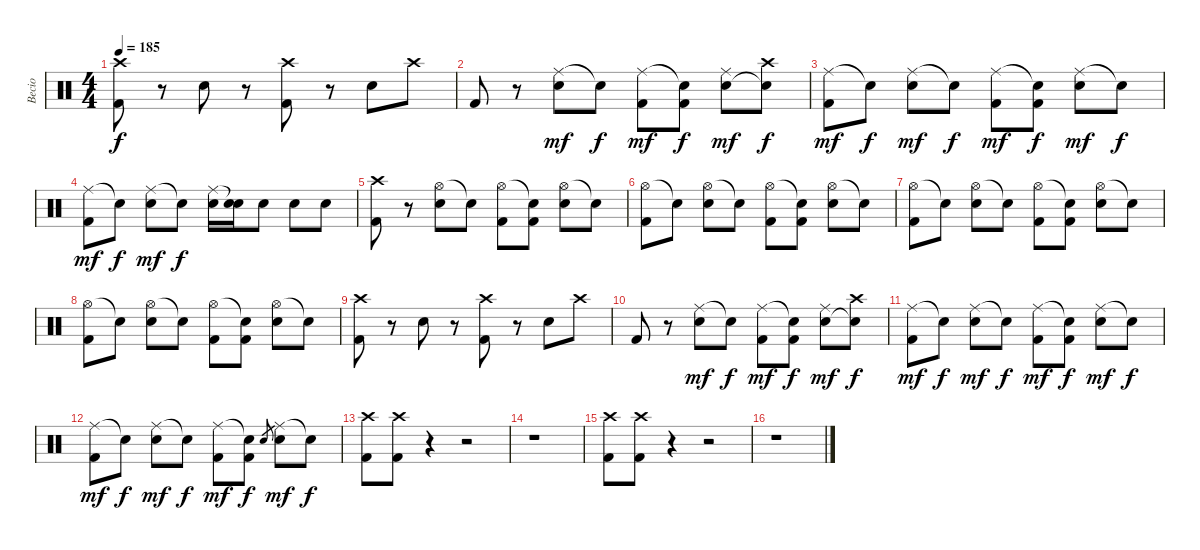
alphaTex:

\track ("Becio" "Becio") {instrument percussion}
\staff {score}
\articulation defaults
\ts (4 4)
\tempo 185
\clef neutral
\ks c
("Crash high (hit)" "Kick (hit) 2").8{dy f} r.8 "Electric Snare (hit)".8 r.8 ("Crash high (hit)" "Kick (hit) 2").8 r.8 "Electric Snare (hit)".8 "Crash high (hit)".8 |
"Kick (hit) 2".8 r.8 ("Ride (middle)" "Electric Snare (hit)").8{dy mf} "Snare (hit)"{t}.8{dy f} ("Ride (middle)" "Kick (hit) 2").8{dy mf} ("Snare (hit)"{t} "Kick (hit) 2").8{dy f} ("Ride (middle)" "Electric Snare (hit)").8{dy mf} ("Crash high (hit)" "Snare (hit)"{t}).8{dy f} |
("Ride (middle)" "Kick (hit) 2").8{dy mf} "Snare (hit)"{t}.8{dy f} ("Ride (middle)" "Electric Snare (hit)").8{dy mf} "Snare (hit)"{t}.8{dy f} ("Ride (middle)" "Kick (hit) 2").8{dy mf} ("Snare (hit)"{t} "Kick (hit) 2").8{dy f} ("Ride (middle)" "Electric Snare (hit)").8{dy mf} "Snare (hit)"{t}.8{dy f} |
("Ride (middle)" "Kick (hit) 2").8{dy mf} "Snare (hit)"{t}.8{dy f} ("Ride (middle)" "Electric Snare (hit)").8{dy mf} "Snare (hit)"{t}.8{dy f} ("Ride (middle)" "Electric Snare (hit)").16 ("Snare (hit)"{t} "Electric Snare (hit)").16 "Electric Snare (hit)".8 "Electric Snare (hit)".8 "Electric Snare (hit)".8 |
("Crash high (hit)" "Kick (hit) 2").8 r.8 ("Hi-Hat (open)" "Electric Snare (hit)").8 "Snare (hit)"{t}.8 ("Hi-Hat (open)" "Kick (hit) 2").8 ("Snare (hit)"{t} "Kick (hit) 2").8 ("Hi-Hat (open)" "Electric Snare (hit)").8 "Snare (hit)"{t}.8 |
("Hi-Hat (open)" "Kick (hit) 2").8 "Snare (hit)"{t}.8 ("Hi-Hat (open)" "Electric Snare (hit)").8 "Snare (hit)"{t}.8 ("Hi-Hat (open)" "Kick (hit) 2").8 ("Snare (hit)"{t} "Kick (hit) 2").8 ("Hi-Hat (open)" "Electric Snare (hit)").8 "Snare (hit)"{t}.8 |
("Hi-Hat (open)" "Kick (hit) 2").8 "Snare (hit)"{t}.8 ("Hi-Hat (open)" "Electric Snare (hit)").8 "Snare (hit)"{t}.8 ("Hi-Hat (open)" "Kick (hit) 2").8 ("Snare (hit)"{t} "Kick (hit) 2").8 ("Hi-Hat (open)" "Electric Snare (hit)").8 "Snare (hit)"{t}.8 |
("Hi-Hat (open)" "Kick (hit) 2").8 "Snare (hit)"{t}.8 ("Hi-Hat (open)" "Electric Snare (hit)").8 "Snare (hit)"{t}.8 ("Hi-Hat (open)" "Kick (hit) 2").8 ("Snare (hit)"{t} "Kick (hit) 2").8 ("Hi-Hat (open)" "Electric Snare (hit)").8 "Snare (hit)"{t}.8 |
("Crash high (hit)" "Kick (hit) 2").8 r.8 "Electric Snare (hit)".8 r.8 ("Crash high (hit)" "Kick (hit) 2").8 r.8 "Electric Snare (hit)".8 "Crash high (hit)".8 |
"Kick (hit) 2".8 r.8 ("Ride (middle)" "Electric Snare (hit)").8{dy mf} "Snare (hit)"{t}.8{dy f} ("Ride (middle)" "Kick (hit) 2").8{dy mf} ("Snare (hit)"{t} "Kick (hit) 2").8{dy f} ("Ride (middle)" "Electric Snare (hit)").8{dy mf} ("Crash high (hit)" "Snare (hit)"{t}).8{dy f} |
("Ride (middle)" "Kick (hit) 2").8{dy mf} "Snare (hit)"{t}.8{dy f} ("Ride (middle)" "Electric Snare (hit)").8{dy mf} "Snare (hit)"{t}.8{dy f} ("Ride (middle)" "Kick (hit) 2").8{dy mf} ("Snare (hit)"{t} "Kick (hit) 2").8{dy f} ("Ride (middle)" "Electric Snare (hit)").8{dy mf} "Snare (hit)"{t}.8{dy f} |
("Ride (middle)" "Kick (hit) 2").8{dy mf} "Snare (hit)"{t}.8{dy f} ("Ride (middle)" "Electric Snare (hit)").8{dy mf} "Snare (hit)"{t}.8{dy f} ("Ride (middle)" "Kick (hit) 2").8{dy mf} ("Snare (hit)"{t} "Kick (hit) 2").8{dy f} "Electric Snare (hit)".8{gr} ("Ride (middle)" "Electric Snare (hit)").8{dy mf} "Snare (hit)"{t}.8{dy f} |
("Crash high (hit)" "Kick (hit) 2").8 ("Crash high (hit)" "Kick (hit) 2").8 r.4 r.2 |
r.1 |
("Crash high (hit)" "Kick (hit) 2").8 ("Crash high (hit)" "Kick (hit) 2").8 r.4 r.2 |
r.1
